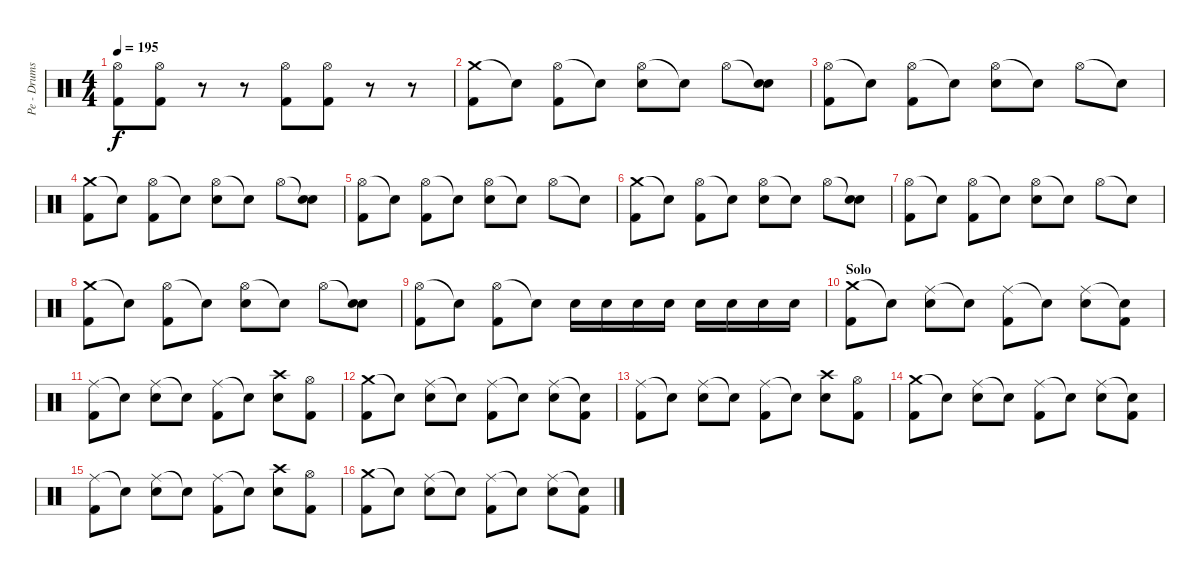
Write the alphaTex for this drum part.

\track ("Pe - Drums" "Pe - Drums") {instrument percussion}
\staff {score}
\articulation defaults
\ts (4 4)
\tempo 195
\clef neutral
\ks c
("Hi-Hat (open)" "Kick (hit) 2").8{dy f volume 13} ("Hi-Hat (open)" "Kick (hit) 2").8 r.8{volume 0} r.8 ("Hi-Hat (open)" "Kick (hit) 2").8{volume 13} ("Hi-Hat (open)" "Kick (hit) 2").8 r.8{volume 0} r.8 |
("Crash medium (hit)" "Kick (hit) 2").8{volume 13} "Snare (hit)"{t}.8 ("Hi-Hat (open)" "Kick (hit) 2").8 "Snare (hit)"{t}.8 ("Hi-Hat (open)" "Snare (hit) 2").8 "Snare (hit)"{t}.8 "Hi-Hat (open)".8 ("Snare (hit)"{t} "Snare (hit) 2").8 |
("Hi-Hat (open)" "Kick (hit) 2").8 "Snare (hit)"{t}.8 ("Hi-Hat (open)" "Kick (hit) 2").8 "Snare (hit)"{t}.8 ("Hi-Hat (open)" "Snare (hit) 2").8 "Snare (hit)"{t}.8 "Hi-Hat (open)".8 "Snare (hit)"{t}.8 |
("Crash medium (hit)" "Kick (hit) 2").8{volume 13} "Snare (hit)"{t}.8 ("Hi-Hat (open)" "Kick (hit) 2").8 "Snare (hit)"{t}.8 ("Hi-Hat (open)" "Snare (hit) 2").8 "Snare (hit)"{t}.8 "Hi-Hat (open)".8 ("Snare (hit)"{t} "Snare (hit) 2").8 |
("Hi-Hat (open)" "Kick (hit) 2").8 "Snare (hit)"{t}.8 ("Hi-Hat (open)" "Kick (hit) 2").8 "Snare (hit)"{t}.8 ("Hi-Hat (open)" "Snare (hit) 2").8 "Snare (hit)"{t}.8 "Hi-Hat (open)".8 "Snare (hit)"{t}.8 |
("Crash medium (hit)" "Kick (hit) 2").8{volume 13} "Snare (hit)"{t}.8 ("Hi-Hat (open)" "Kick (hit) 2").8 "Snare (hit)"{t}.8 ("Hi-Hat (open)" "Snare (hit) 2").8 "Snare (hit)"{t}.8 "Hi-Hat (open)".8 ("Snare (hit)"{t} "Snare (hit) 2").8 |
("Hi-Hat (open)" "Kick (hit) 2").8 "Snare (hit)"{t}.8 ("Hi-Hat (open)" "Kick (hit) 2").8 "Snare (hit)"{t}.8 ("Hi-Hat (open)" "Snare (hit) 2").8 "Snare (hit)"{t}.8 "Hi-Hat (open)".8 "Snare (hit)"{t}.8 |
("Crash medium (hit)" "Kick (hit) 2").8{volume 13} "Snare (hit)"{t}.8 ("Hi-Hat (open)" "Kick (hit) 2").8 "Snare (hit)"{t}.8 ("Hi-Hat (open)" "Snare (hit) 2").8 "Snare (hit)"{t}.8 "Hi-Hat (open)".8 ("Snare (hit)"{t} "Snare (hit) 2").8 |
("Hi-Hat (open)" "Kick (hit) 2").8 "Snare (hit)"{t}.8 ("Hi-Hat (open)" "Kick (hit) 2").8 "Snare (hit)"{t}.8 "Electric Snare (hit)".16 "Electric Snare (hit)".16 "Electric Snare (hit)".16 "Electric Snare (hit)".16 "Electric Snare (hit)".16 "Electric Snare (hit)".16 "Electric Snare (hit)".16 "Electric Snare (hit)".16 |
\section ("" "Solo")
("Crash medium (hit)" "Kick (hit) 2").8{volume 13} "Snare (hit)"{t}.8 ("Ride (middle)" "Electric Snare (hit)").8 "Snare (hit)"{t}.8 ("Ride (middle)" "Kick (hit) 2").8 "Snare (hit)"{t}.8 ("Ride (middle)" "Electric Snare (hit)").8 ("Snare (hit)"{t} "Kick (hit) 2").8 |
("Ride (middle)" "Kick (hit) 2").8 "Snare (hit)"{t}.8 ("Ride (middle)" "Electric Snare (hit)").8 "Snare (hit)"{t}.8 ("Ride (middle)" "Kick (hit) 2").8 "Snare (hit)"{t}.8 ("Crash high (hit)" "Electric Snare (hit)").8 ("Hi-Hat (open)" "Kick (hit) 2").8 |
("Crash medium (hit)" "Kick (hit) 2").8{volume 13} "Snare (hit)"{t}.8 ("Ride (middle)" "Electric Snare (hit)").8 "Snare (hit)"{t}.8 ("Ride (middle)" "Kick (hit) 2").8 "Snare (hit)"{t}.8 ("Ride (middle)" "Electric Snare (hit)").8 ("Snare (hit)"{t} "Kick (hit) 2").8 |
("Ride (middle)" "Kick (hit) 2").8 "Snare (hit)"{t}.8 ("Ride (middle)" "Electric Snare (hit)").8 "Snare (hit)"{t}.8 ("Ride (middle)" "Kick (hit) 2").8 "Snare (hit)"{t}.8 ("Crash high (hit)" "Electric Snare (hit)").8 ("Hi-Hat (open)" "Kick (hit) 2").8 |
("Crash medium (hit)" "Kick (hit) 2").8{volume 13} "Snare (hit)"{t}.8 ("Ride (middle)" "Electric Snare (hit)").8 "Snare (hit)"{t}.8 ("Ride (middle)" "Kick (hit) 2").8 "Snare (hit)"{t}.8 ("Ride (middle)" "Electric Snare (hit)").8 ("Snare (hit)"{t} "Kick (hit) 2").8 |
("Ride (middle)" "Kick (hit) 2").8 "Snare (hit)"{t}.8 ("Ride (middle)" "Electric Snare (hit)").8 "Snare (hit)"{t}.8 ("Ride (middle)" "Kick (hit) 2").8 "Snare (hit)"{t}.8 ("Crash high (hit)" "Electric Snare (hit)").8 ("Hi-Hat (open)" "Kick (hit) 2").8 |
("Crash medium (hit)" "Kick (hit) 2").8{volume 13} "Snare (hit)"{t}.8 ("Ride (middle)" "Electric Snare (hit)").8 "Snare (hit)"{t}.8 ("Ride (middle)" "Kick (hit) 2").8 "Snare (hit)"{t}.8 ("Ride (middle)" "Electric Snare (hit)").8 ("Snare (hit)"{t} "Kick (hit) 2").8
